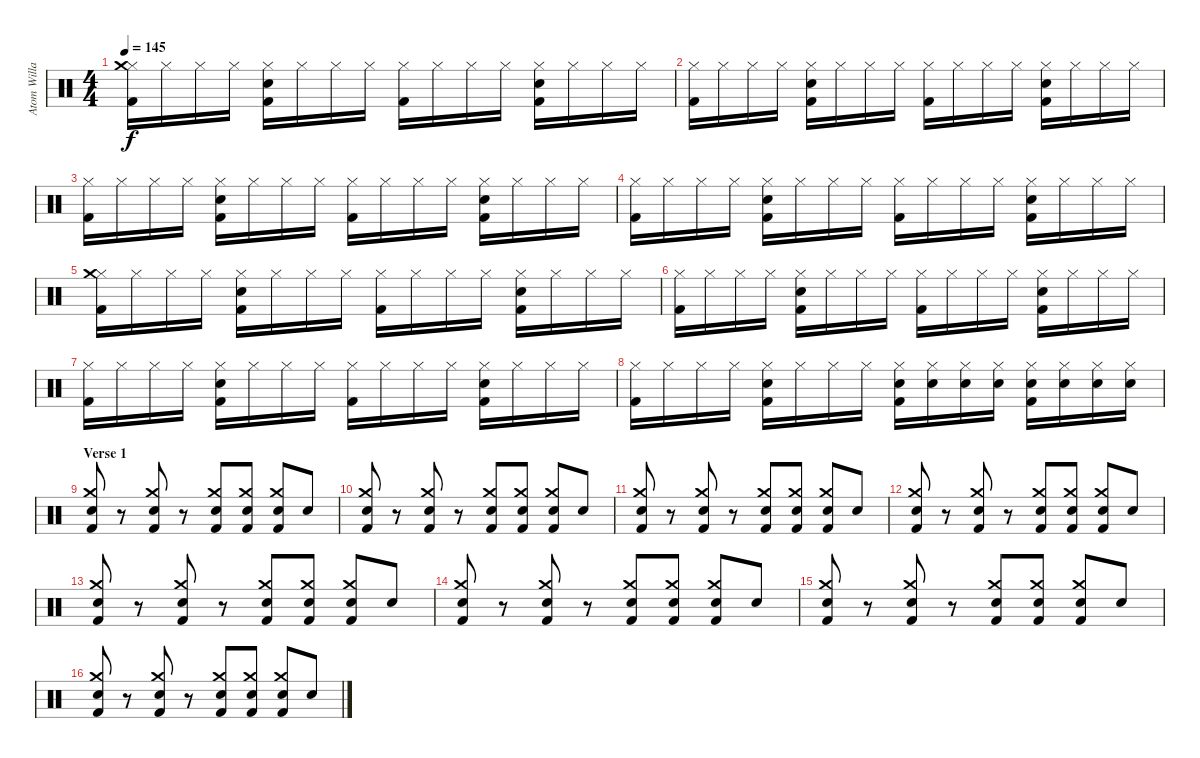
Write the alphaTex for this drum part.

\track ("Atom Willard (Drums)" "Atom Willa") {instrument percussion}
\staff {score}
\articulation defaults
\ts (4 4)
\tempo 145
\clef neutral
\ks c
("Hi-Hat (closed)" "Kick (hit) 2" "Crash medium (hit)").16{dy f} "Hi-Hat (closed)".16 "Hi-Hat (closed)".16 "Hi-Hat (closed)".16 ("Hi-Hat (closed)" "Electric Snare (hit)" "Kick (hit) 2").16 "Hi-Hat (closed)".16 "Hi-Hat (closed)".16 "Hi-Hat (closed)".16 ("Hi-Hat (closed)" "Kick (hit) 2").16 "Hi-Hat (closed)".16 "Hi-Hat (closed)".16 "Hi-Hat (closed)".16 ("Hi-Hat (closed)" "Electric Snare (hit)" "Kick (hit) 2").16 "Hi-Hat (closed)".16 "Hi-Hat (closed)".16 "Hi-Hat (closed)".16 |
("Hi-Hat (closed)" "Kick (hit) 2").16 "Hi-Hat (closed)".16 "Hi-Hat (closed)".16 "Hi-Hat (closed)".16 ("Hi-Hat (closed)" "Electric Snare (hit)" "Kick (hit) 2").16 "Hi-Hat (closed)".16 "Hi-Hat (closed)".16 "Hi-Hat (closed)".16 ("Hi-Hat (closed)" "Kick (hit) 2").16 "Hi-Hat (closed)".16 "Hi-Hat (closed)".16 "Hi-Hat (closed)".16 ("Hi-Hat (closed)" "Electric Snare (hit)" "Kick (hit) 2").16 "Hi-Hat (closed)".16 "Hi-Hat (closed)".16 "Hi-Hat (closed)".16 |
("Hi-Hat (closed)" "Kick (hit) 2").16 "Hi-Hat (closed)".16 "Hi-Hat (closed)".16 "Hi-Hat (closed)".16 ("Hi-Hat (closed)" "Electric Snare (hit)" "Kick (hit) 2").16 "Hi-Hat (closed)".16 "Hi-Hat (closed)".16 "Hi-Hat (closed)".16 ("Hi-Hat (closed)" "Kick (hit) 2").16 "Hi-Hat (closed)".16 "Hi-Hat (closed)".16 "Hi-Hat (closed)".16 ("Hi-Hat (closed)" "Electric Snare (hit)" "Kick (hit) 2").16 "Hi-Hat (closed)".16 "Hi-Hat (closed)".16 "Hi-Hat (closed)".16 |
("Hi-Hat (closed)" "Kick (hit) 2").16 "Hi-Hat (closed)".16 "Hi-Hat (closed)".16 "Hi-Hat (closed)".16 ("Hi-Hat (closed)" "Electric Snare (hit)" "Kick (hit) 2").16 "Hi-Hat (closed)".16 "Hi-Hat (closed)".16 "Hi-Hat (closed)".16 ("Hi-Hat (closed)" "Kick (hit) 2").16 "Hi-Hat (closed)".16 "Hi-Hat (closed)".16 "Hi-Hat (closed)".16 ("Hi-Hat (closed)" "Electric Snare (hit)" "Kick (hit) 2").16 "Hi-Hat (closed)".16 "Hi-Hat (closed)".16 "Hi-Hat (closed)".16 |
("Hi-Hat (closed)" "Kick (hit) 2" "Crash medium (hit)").16 "Hi-Hat (closed)".16 "Hi-Hat (closed)".16 "Hi-Hat (closed)".16 ("Hi-Hat (closed)" "Electric Snare (hit)" "Kick (hit) 2").16 "Hi-Hat (closed)".16 "Hi-Hat (closed)".16 "Hi-Hat (closed)".16 ("Hi-Hat (closed)" "Kick (hit) 2").16 "Hi-Hat (closed)".16 "Hi-Hat (closed)".16 "Hi-Hat (closed)".16 ("Hi-Hat (closed)" "Electric Snare (hit)" "Kick (hit) 2").16 "Hi-Hat (closed)".16 "Hi-Hat (closed)".16 "Hi-Hat (closed)".16 |
("Hi-Hat (closed)" "Kick (hit) 2").16 "Hi-Hat (closed)".16 "Hi-Hat (closed)".16 "Hi-Hat (closed)".16 ("Hi-Hat (closed)" "Electric Snare (hit)" "Kick (hit) 2").16 "Hi-Hat (closed)".16 "Hi-Hat (closed)".16 "Hi-Hat (closed)".16 ("Hi-Hat (closed)" "Kick (hit) 2").16 "Hi-Hat (closed)".16 "Hi-Hat (closed)".16 "Hi-Hat (closed)".16 ("Hi-Hat (closed)" "Electric Snare (hit)" "Kick (hit) 2").16 "Hi-Hat (closed)".16 "Hi-Hat (closed)".16 "Hi-Hat (closed)".16 |
("Hi-Hat (closed)" "Kick (hit) 2").16 "Hi-Hat (closed)".16 "Hi-Hat (closed)".16 "Hi-Hat (closed)".16 ("Hi-Hat (closed)" "Electric Snare (hit)" "Kick (hit) 2").16 "Hi-Hat (closed)".16 "Hi-Hat (closed)".16 "Hi-Hat (closed)".16 ("Hi-Hat (closed)" "Kick (hit) 2").16 "Hi-Hat (closed)".16 "Hi-Hat (closed)".16 "Hi-Hat (closed)".16 ("Hi-Hat (closed)" "Electric Snare (hit)" "Kick (hit) 2").16 "Hi-Hat (closed)".16 "Hi-Hat (closed)".16 "Hi-Hat (closed)".16 |
("Hi-Hat (closed)" "Kick (hit) 2").16 "Hi-Hat (closed)".16 "Hi-Hat (closed)".16 "Hi-Hat (closed)".16 ("Hi-Hat (closed)" "Electric Snare (hit)" "Kick (hit) 2").16 "Hi-Hat (closed)".16 "Hi-Hat (closed)".16 "Hi-Hat (closed)".16 ("Hi-Hat (closed)" "Kick (hit) 2" "Electric Snare (hit)").16 ("Hi-Hat (closed)" "Electric Snare (hit)").16 ("Hi-Hat (closed)" "Electric Snare (hit)").16 ("Hi-Hat (closed)" "Electric Snare (hit)").16 ("Hi-Hat (closed)" "Electric Snare (hit)" "Kick (hit) 2").16 ("Hi-Hat (closed)" "Electric Snare (hit)").16 ("Hi-Hat (closed)" "Electric Snare (hit)").16 ("Hi-Hat (closed)" "Electric Snare (hit)").16 |
\section ("" "Verse 1")
("Crash medium (hit)" "Electric Snare (hit)" "Kick (hit) 2").8 r.8 ("Crash medium (hit)" "Electric Snare (hit)" "Kick (hit) 2").8 r.8 ("Crash medium (hit)" "Electric Snare (hit)" "Kick (hit) 2").8 ("Crash medium (hit)" "Electric Snare (hit)" "Kick (hit) 2").8 ("Crash medium (hit)" "Electric Snare (hit)" "Kick (hit) 2").8 "Snare (hit)".8 |
("Crash medium (hit)" "Electric Snare (hit)" "Kick (hit) 2").8 r.8 ("Crash medium (hit)" "Electric Snare (hit)" "Kick (hit) 2").8 r.8 ("Crash medium (hit)" "Electric Snare (hit)" "Kick (hit) 2").8 ("Crash medium (hit)" "Electric Snare (hit)" "Kick (hit) 2").8 ("Crash medium (hit)" "Electric Snare (hit)" "Kick (hit) 2").8 "Snare (hit)".8 |
("Crash medium (hit)" "Electric Snare (hit)" "Kick (hit) 2").8 r.8 ("Crash medium (hit)" "Electric Snare (hit)" "Kick (hit) 2").8 r.8 ("Crash medium (hit)" "Electric Snare (hit)" "Kick (hit) 2").8 ("Crash medium (hit)" "Electric Snare (hit)" "Kick (hit) 2").8 ("Crash medium (hit)" "Electric Snare (hit)" "Kick (hit) 2").8 "Snare (hit)".8 |
("Crash medium (hit)" "Electric Snare (hit)" "Kick (hit) 2").8 r.8 ("Crash medium (hit)" "Electric Snare (hit)" "Kick (hit) 2").8 r.8 ("Crash medium (hit)" "Electric Snare (hit)" "Kick (hit) 2").8 ("Crash medium (hit)" "Electric Snare (hit)" "Kick (hit) 2").8 ("Crash medium (hit)" "Electric Snare (hit)" "Kick (hit) 2").8 "Snare (hit)".8 |
("Crash medium (hit)" "Electric Snare (hit)" "Kick (hit) 2").8 r.8 ("Crash medium (hit)" "Electric Snare (hit)" "Kick (hit) 2").8 r.8 ("Crash medium (hit)" "Electric Snare (hit)" "Kick (hit) 2").8 ("Crash medium (hit)" "Electric Snare (hit)" "Kick (hit) 2").8 ("Crash medium (hit)" "Electric Snare (hit)" "Kick (hit) 2").8 "Snare (hit)".8 |
("Crash medium (hit)" "Electric Snare (hit)" "Kick (hit) 2").8 r.8 ("Crash medium (hit)" "Electric Snare (hit)" "Kick (hit) 2").8 r.8 ("Crash medium (hit)" "Electric Snare (hit)" "Kick (hit) 2").8 ("Crash medium (hit)" "Electric Snare (hit)" "Kick (hit) 2").8 ("Crash medium (hit)" "Electric Snare (hit)" "Kick (hit) 2").8 "Snare (hit)".8 |
("Crash medium (hit)" "Electric Snare (hit)" "Kick (hit) 2").8 r.8 ("Crash medium (hit)" "Electric Snare (hit)" "Kick (hit) 2").8 r.8 ("Crash medium (hit)" "Electric Snare (hit)" "Kick (hit) 2").8 ("Crash medium (hit)" "Electric Snare (hit)" "Kick (hit) 2").8 ("Crash medium (hit)" "Electric Snare (hit)" "Kick (hit) 2").8 "Snare (hit)".8 |
("Crash medium (hit)" "Electric Snare (hit)" "Kick (hit) 2").8 r.8 ("Crash medium (hit)" "Electric Snare (hit)" "Kick (hit) 2").8 r.8 ("Crash medium (hit)" "Electric Snare (hit)" "Kick (hit) 2").8 ("Crash medium (hit)" "Electric Snare (hit)" "Kick (hit) 2").8 ("Crash medium (hit)" "Electric Snare (hit)" "Kick (hit) 2").8 "Snare (hit)".8
